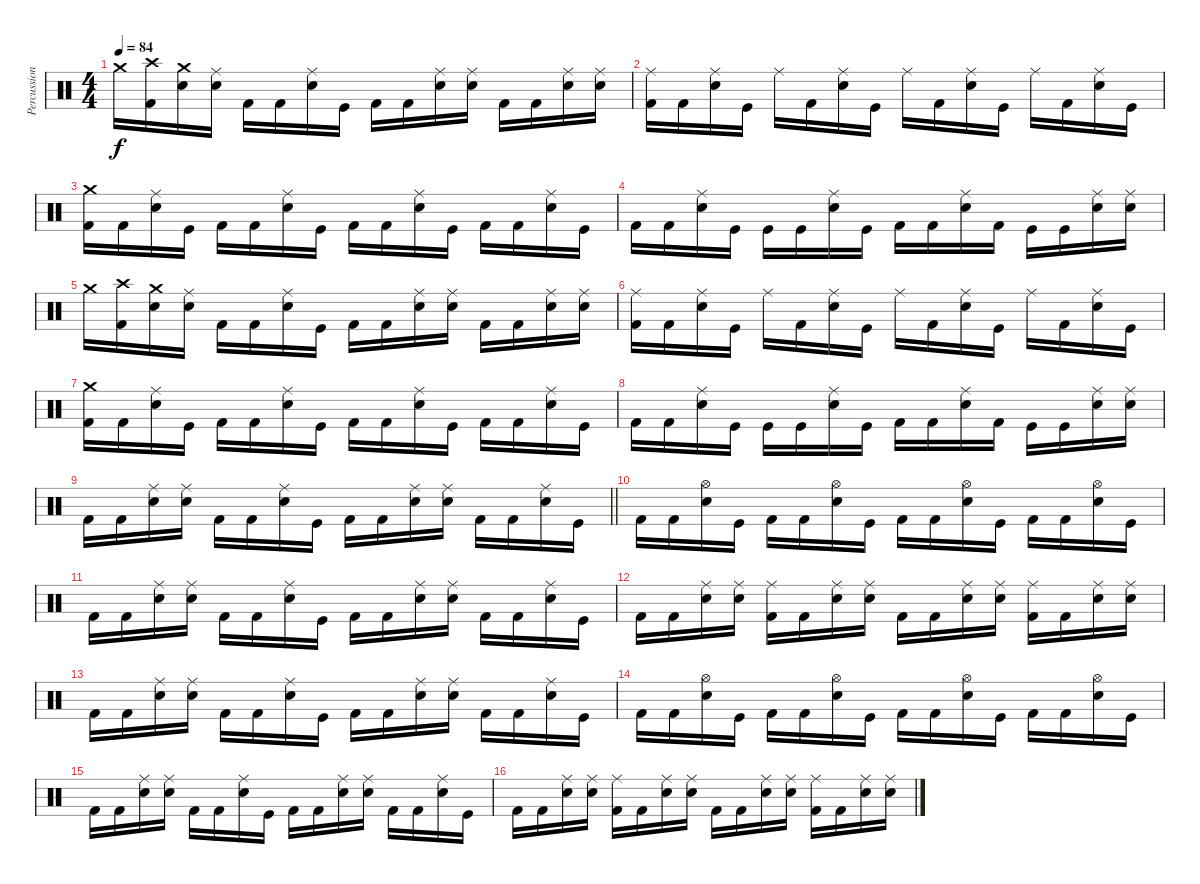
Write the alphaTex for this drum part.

\track ("Percussion" "Percussion") {instrument percussion}
\staff {score}
\articulation defaults
\ts (4 4)
\tempo 84
\clef neutral
\ks c "Crash medium (hit)".16{dy f}
("Kick (hit) 2" "Crash high (hit)").16 ("Snare (hit) 2" "Crash medium (hit)").16 ("Snare (hit) 2" "Ride (middle)").16 "Kick (hit) 2".16 "Kick (hit) 2".16 ("Snare (hit) 2" "Ride (middle)").16 "Kick (hit)".16 "Kick (hit) 2".16 "Kick (hit) 2".16 ("Snare (hit) 2" "Ride (middle)").16 ("Snare (hit) 2" "Ride (middle)").16 "Kick (hit) 2".16 "Kick (hit) 2".16 ("Snare (hit) 2" "Ride (middle)").16 ("Snare (hit) 2" "Ride (middle)").16 |
("Kick (hit) 2" "Ride (middle)").16 "Kick (hit) 2".16 ("Snare (hit) 2" "Ride (middle)").16 "Kick (hit)".16 "Ride (middle)".16 "Kick (hit) 2".16 ("Snare (hit) 2" "Ride (middle)").16 "Kick (hit)".16 "Ride (middle)".16 "Kick (hit) 2".16 ("Snare (hit) 2" "Ride (middle)").16 "Kick (hit)".16 "Ride (middle)".16 "Kick (hit) 2".16 ("Snare (hit) 2" "Ride (middle)").16 "Kick (hit)".16 |
("Kick (hit) 2" "Crash medium (hit)").16 "Kick (hit) 2".16 ("Snare (hit) 2" "Ride (middle)").16 "Kick (hit)".16 "Kick (hit) 2".16 "Kick (hit) 2".16 ("Snare (hit) 2" "Ride (middle)").16 "Kick (hit)".16 "Kick (hit) 2".16 "Kick (hit) 2".16 ("Snare (hit) 2" "Ride (middle)").16 "Kick (hit)".16 "Kick (hit) 2".16 "Kick (hit) 2".16 ("Snare (hit) 2" "Ride (middle)").16 "Kick (hit)".16 |
"Kick (hit) 2".16 "Kick (hit) 2".16 ("Snare (hit) 2" "Ride (middle)").16 "Kick (hit)".16 "Kick (hit)".16 "Kick (hit)".16 ("Snare (hit) 2" "Ride (middle)").16 "Kick (hit)".16 "Kick (hit) 2".16 "Kick (hit) 2".16 ("Snare (hit) 2" "Ride (middle)").16 "Kick (hit) 2".16 "Kick (hit)".16 "Kick (hit)".16 ("Snare (hit) 2" "Ride (middle)").16 ("Snare (hit) 2" "Ride (middle)").16 |
"Crash medium (hit)".16 ("Kick (hit) 2" "Crash high (hit)").16 ("Snare (hit) 2" "Crash medium (hit)").16 ("Snare (hit) 2" "Ride (middle)").16 "Kick (hit) 2".16 "Kick (hit) 2".16 ("Snare (hit) 2" "Ride (middle)").16 "Kick (hit)".16 "Kick (hit) 2".16 "Kick (hit) 2".16 ("Snare (hit) 2" "Ride (middle)").16 ("Snare (hit) 2" "Ride (middle)").16 "Kick (hit) 2".16 "Kick (hit) 2".16 ("Snare (hit) 2" "Ride (middle)").16 ("Snare (hit) 2" "Ride (middle)").16 |
("Kick (hit) 2" "Ride (middle)").16 "Kick (hit) 2".16 ("Snare (hit) 2" "Ride (middle)").16 "Kick (hit)".16 "Ride (middle)".16 "Kick (hit) 2".16 ("Snare (hit) 2" "Ride (middle)").16 "Kick (hit)".16 "Ride (middle)".16 "Kick (hit) 2".16 ("Snare (hit) 2" "Ride (middle)").16 "Kick (hit)".16 "Ride (middle)".16 "Kick (hit) 2".16 ("Snare (hit) 2" "Ride (middle)").16 "Kick (hit)".16 |
("Kick (hit) 2" "Crash medium (hit)").16 "Kick (hit) 2".16 ("Snare (hit) 2" "Ride (middle)").16 "Kick (hit)".16 "Kick (hit) 2".16 "Kick (hit) 2".16 ("Snare (hit) 2" "Ride (middle)").16 "Kick (hit)".16 "Kick (hit) 2".16 "Kick (hit) 2".16 ("Snare (hit) 2" "Ride (middle)").16 "Kick (hit)".16 "Kick (hit) 2".16 "Kick (hit) 2".16 ("Snare (hit) 2" "Ride (middle)").16 "Kick (hit)".16 |
"Kick (hit) 2".16 "Kick (hit) 2".16 ("Snare (hit) 2" "Ride (middle)").16 "Kick (hit)".16 "Kick (hit)".16 "Kick (hit)".16 ("Snare (hit) 2" "Ride (middle)").16 "Kick (hit)".16 "Kick (hit) 2".16 "Kick (hit) 2".16 ("Snare (hit) 2" "Ride (middle)").16 "Kick (hit) 2".16 "Kick (hit)".16 "Kick (hit)".16 ("Snare (hit) 2" "Ride (middle)").16 ("Snare (hit) 2" "Ride (middle)").16 |
\barLineRight lightlight "Kick (hit) 2".16 "Kick (hit) 2".16
("Ride (middle)" "Snare (hit) 2").16 ("Ride (middle)" "Snare (hit) 2").16 "Kick (hit) 2".16 "Kick (hit) 2".16 ("Ride (middle)" "Snare (hit) 2").16 "Kick (hit)".16 "Kick (hit) 2".16 "Kick (hit) 2".16 ("Ride (middle)" "Snare (hit) 2").16 ("Ride (middle)" "Snare (hit) 2").16 "Kick (hit) 2".16 "Kick (hit) 2".16 ("Ride (middle)" "Snare (hit) 2").16 "Kick (hit)".16 |
"Kick (hit) 2".16 "Kick (hit) 2".16 ("Hi-Hat (open)" "Snare (hit) 2").16 "Kick (hit)".16 "Kick (hit) 2".16 "Kick (hit) 2".16 ("Hi-Hat (open)" "Snare (hit) 2").16 "Kick (hit)".16 "Kick (hit) 2".16 "Kick (hit) 2".16 ("Hi-Hat (open)" "Snare (hit) 2").16 "Kick (hit)".16 "Kick (hit) 2".16 "Kick (hit) 2".16 ("Hi-Hat (open)" "Snare (hit) 2").16 "Kick (hit)".16 |
"Kick (hit) 2".16 "Kick (hit) 2".16 ("Ride (middle)" "Snare (hit) 2").16 ("Ride (middle)" "Snare (hit) 2").16 "Kick (hit) 2".16 "Kick (hit) 2".16 ("Ride (middle)" "Snare (hit) 2").16 "Kick (hit)".16 "Kick (hit) 2".16 "Kick (hit) 2".16 ("Ride (middle)" "Snare (hit) 2").16 ("Ride (middle)" "Snare (hit) 2").16 "Kick (hit) 2".16 "Kick (hit) 2".16 ("Ride (middle)" "Snare (hit) 2").16 "Kick (hit)".16 |
"Kick (hit) 2".16 "Kick (hit) 2".16 ("Ride (middle)" "Snare (hit) 2").16 ("Ride (middle)" "Snare (hit) 2").16 ("Ride (middle)" "Kick (hit) 2").16 "Kick (hit) 2".16 ("Ride (middle)" "Snare (hit) 2").16 ("Ride (middle)" "Snare (hit) 2").16 "Kick (hit) 2".16 "Kick (hit) 2".16 ("Ride (middle)" "Snare (hit) 2").16 ("Ride (middle)" "Snare (hit) 2").16 ("Ride (middle)" "Kick (hit) 2").16 "Kick (hit) 2".16 ("Ride (middle)" "Snare (hit) 2").16 ("Ride (middle)" "Snare (hit) 2").16 |
"Kick (hit) 2".16 "Kick (hit) 2".16 ("Ride (middle)" "Snare (hit) 2").16 ("Ride (middle)" "Snare (hit) 2").16 "Kick (hit) 2".16 "Kick (hit) 2".16 ("Ride (middle)" "Snare (hit) 2").16 "Kick (hit)".16 "Kick (hit) 2".16 "Kick (hit) 2".16 ("Ride (middle)" "Snare (hit) 2").16 ("Ride (middle)" "Snare (hit) 2").16 "Kick (hit) 2".16 "Kick (hit) 2".16 ("Ride (middle)" "Snare (hit) 2").16 "Kick (hit)".16 |
"Kick (hit) 2".16 "Kick (hit) 2".16 ("Hi-Hat (open)" "Snare (hit) 2").16 "Kick (hit)".16 "Kick (hit) 2".16 "Kick (hit) 2".16 ("Hi-Hat (open)" "Snare (hit) 2").16 "Kick (hit)".16 "Kick (hit) 2".16 "Kick (hit) 2".16 ("Hi-Hat (open)" "Snare (hit) 2").16 "Kick (hit)".16 "Kick (hit) 2".16 "Kick (hit) 2".16 ("Hi-Hat (open)" "Snare (hit) 2").16 "Kick (hit)".16 |
"Kick (hit) 2".16 "Kick (hit) 2".16 ("Ride (middle)" "Snare (hit) 2").16 ("Ride (middle)" "Snare (hit) 2").16 "Kick (hit) 2".16 "Kick (hit) 2".16 ("Ride (middle)" "Snare (hit) 2").16 "Kick (hit)".16 "Kick (hit) 2".16 "Kick (hit) 2".16 ("Ride (middle)" "Snare (hit) 2").16 ("Ride (middle)" "Snare (hit) 2").16 "Kick (hit) 2".16 "Kick (hit) 2".16 ("Ride (middle)" "Snare (hit) 2").16 "Kick (hit)".16 |
"Kick (hit) 2".16 "Kick (hit) 2".16 ("Ride (middle)" "Snare (hit) 2").16 ("Ride (middle)" "Snare (hit) 2").16 ("Ride (middle)" "Kick (hit) 2").16 "Kick (hit) 2".16 ("Ride (middle)" "Snare (hit) 2").16 ("Ride (middle)" "Snare (hit) 2").16 "Kick (hit) 2".16 "Kick (hit) 2".16 ("Ride (middle)" "Snare (hit) 2").16 ("Ride (middle)" "Snare (hit) 2").16 ("Ride (middle)" "Kick (hit) 2").16 "Kick (hit) 2".16 ("Ride (middle)" "Snare (hit) 2").16 ("Ride (middle)" "Snare (hit) 2").16
